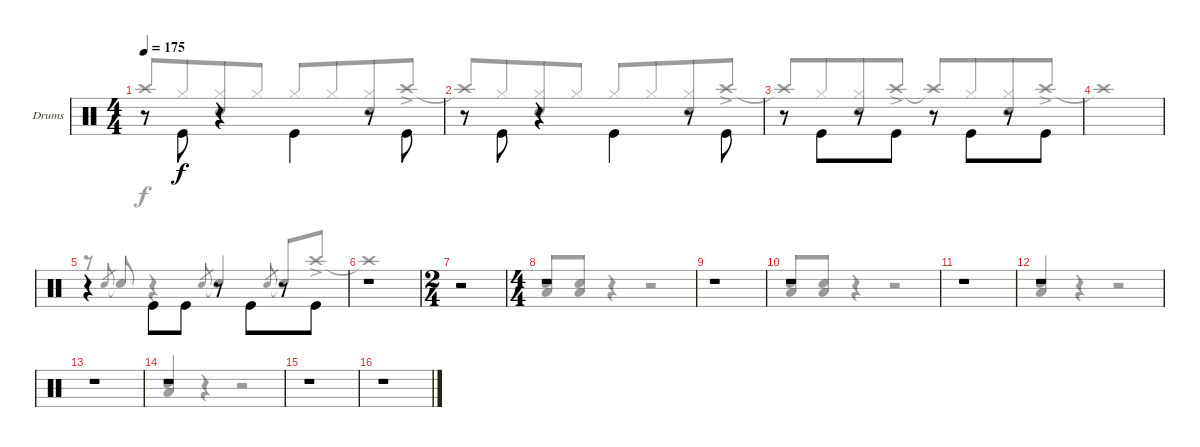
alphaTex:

\defaultSystemsLayout 4
\bracketExtendMode groupsimilarinstruments
\firstSystemTrackNameOrientation horizontal
\otherSystemsTrackNameOrientation horizontal
\track ("Drum" "Drums") {instrument percussion}
\staff {score}
\articulation defaults
\voice
\ts (4 4)
\tempo 175
\clef neutral
\scale
1.02648
\ks c
r.8{dy f} "Kick (hit)".8{beam invert} r.4 "Kick (hit)".4{beam invert} r.8 "Kick (hit)".8{beam invert} |
\scale
0.973518 r.8 "Kick (hit)".8{beam invert} r.4 "Kick (hit)".4{beam invert} r.8 "Kick (hit)".8{beam invert} |
\scale
1.02648 r.8 "Kick (hit)".8{beam invert beam merge} r.8{beam merge} "Kick (hit)".8 r.8 "Kick (hit)".8{beam invert beam merge} r.8{beam merge} "Kick (hit)".8 |
\scale
0.973518 |
\scale
1.02648 r.4 "Kick (hit)".8{beam invert beam merge} "Kick (hit)".8 r.8 "Kick (hit)".8{beam invert beam merge} r.8{beam merge} "Kick (hit)".8 |
\scale
0.973518 r.1 |
\ts (2 4)
\scale
1.02648 r.2 |
\ts (4 4)
\scale
0.973518 r.1 |
\scale
1.02648 r.1 |
\scale
0.973518 r.1 |
\scale
1.02648 r.1 |
\scale
0.973518 r.1 |
\scale
1.02648 r.1 |
\scale
0.973518 r.1 |
\scale
1.02648 r.1 |
\scale
0.973518 r.1
\voice
\clef neutral
\ottava regular
\simile none
\scale
1.02648
\ks c "Crash high (hit)"{t}.8{dy f beam invert beam merge} "Hi-Hat (closed)".8{beam merge}
("Hi-Hat (closed)" "Snare (hit) 2").8{beam merge} "Hi-Hat (closed)".8 "Hi-Hat (closed)".8{beam invert beam merge} "Hi-Hat (closed)".8{beam merge} ("Hi-Hat (closed)" "Snare (hit) 2").8{beam merge} "Crash high (hit)"{ac}.8 |
\scale
0.973518 "Crash high (hit)"{t}.8{beam invert beam merge} "Hi-Hat (closed)".8{beam merge} ("Hi-Hat (closed)" "Snare (hit) 2").8{beam merge} "Hi-Hat (closed)".8 "Hi-Hat (closed)".8{beam invert beam merge} "Hi-Hat (closed)".8{beam merge} ("Hi-Hat (closed)" "Snare (hit) 2").8{beam merge} "Crash high (hit)"{ac}.8 |
\scale
1.02648 "Crash high (hit)"{t}.8{beam invert beam merge} "Hi-Hat (closed)".8{beam merge} ("Hi-Hat (closed)" "Snare (hit) 2").8{beam merge} "Crash high (hit)"{ac}.8 "Crash high (hit)"{t}.8{beam invert beam merge} "Hi-Hat (closed)".8{beam merge} ("Hi-Hat (closed)" "Snare (hit) 2").8{beam merge} "Crash high (hit)"{ac}.8 |
\scale
0.973518 "Crash high (hit)"{t}.1 |
\scale
1.02648 r.8 "Snare (hit) 2".8{gr beam invert} "Snare (hit) 2"{t}.8{beam invert} r.4 "Snare (hit) 2".8{gr beam invert} "Snare (hit) 2"{t}.4{beam invert} "Snare (hit) 2".8{gr beam invert} "Snare (hit) 2"{t}.8{beam invert} "Crash high (hit)"{ac}.8 |
\scale
0.973518 "Crash high (hit)"{t}.1 |
\scale
1.02648 |
\scale
0.973518 ("Snare (hit) 2" "Low Tom (hit)").8{beam invert} ("Snare (hit) 2" "Low Tom (hit)").8 r.4 r.2 |
\scale
1.02648 r.1 |
\scale
0.973518 ("Snare (hit) 2" "Low Tom (hit)").8{beam invert} ("Snare (hit) 2" "Low Tom (hit)").8 r.4 r.2 |
\scale
1.02648 |
\scale
0.973518 ("Snare (hit) 2" "Low Tom (hit)").4{beam invert} r.4 r.2 |
\scale
1.02648 |
\scale
0.973518 ("Snare (hit) 2" "Low Tom (hit)").4{beam invert} r.4 r.2 |
\scale
1.02648 |
\scale
0.973518
